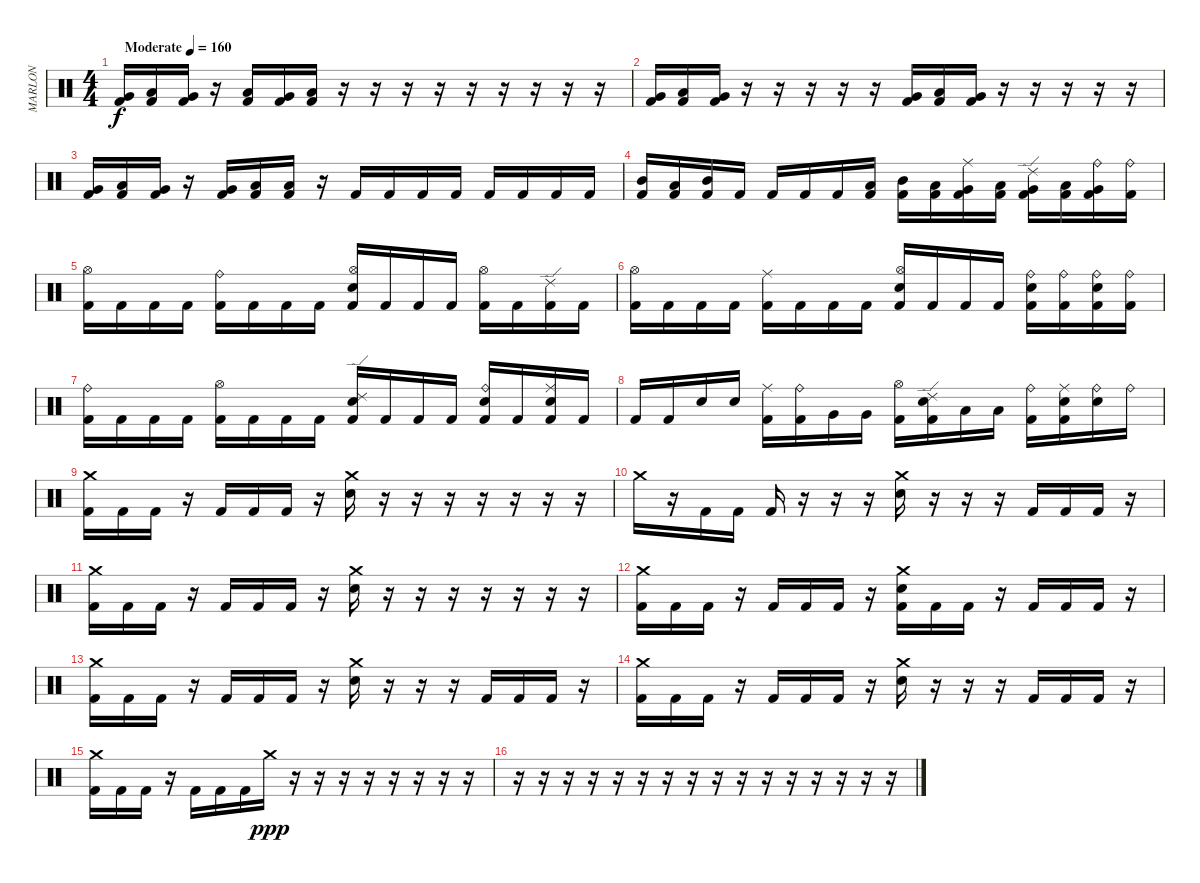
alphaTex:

\track ("MARLON" "MARLON") {instrument percussion}
\staff {score}
\articulation defaults
\ts (4 4)
\tempo (160 "Moderate")
\clef neutral
\ks c
("Very Low Tom (hit)" "Kick (hit) 2").16{dy f} ("Low Tom (hit)" "Kick (hit) 2").16 ("Very Low Tom (hit)" "Kick (hit) 2").16 r.16 ("Low Floor Tom (hit)" "Kick (hit) 2").16 ("Very Low Tom (hit)" "Kick (hit) 2").16 ("Low Floor Tom (hit)" "Kick (hit) 2").16 r.16 r.16 r.16 r.16 r.16 r.16 r.16 r.16 r.16 |
("Very Low Tom (hit)" "Kick (hit) 2").16 ("Low Tom (hit)" "Kick (hit) 2").16 ("Very Low Tom (hit)" "Kick (hit) 2").16 r.16 r.16 r.16 r.16 r.16 ("Very Low Tom (hit)" "Kick (hit) 2").16 ("Low Floor Tom (hit)" "Kick (hit) 2").16 ("Very Low Tom (hit)" "Kick (hit) 2").16 r.16 r.16 r.16 r.16 r.16 |
("Very Low Tom (hit)" "Kick (hit) 2").16 ("Low Floor Tom (hit)" "Kick (hit) 2").16 ("Very Low Tom (hit)" "Kick (hit) 2").16 r.16 ("Very Low Tom (hit)" "Kick (hit) 2").16 ("Low Floor Tom (hit)" "Kick (hit) 2").16 ("Low Floor Tom (hit)" "Kick (hit) 2").16 r.16 "Kick (hit) 2".16 "Kick (hit) 2".16 "Kick (hit) 2".16 "Kick (hit) 2".16 "Kick (hit) 2".16 "Kick (hit) 2".16 "Kick (hit) 2".16 "Kick (hit) 2".16 |
("Mid Tom (hit)" "Kick (hit) 2").16 ("Low Tom (hit)" "Kick (hit) 2").16 ("Mid Tom (hit)" "Kick (hit) 2").16 "Kick (hit) 2".16 "Kick (hit) 2".16 "Kick (hit) 2".16 "Kick (hit) 2".16 ("Low Tom (hit)" "Kick (hit) 2").16 ("Mid Tom (hit)" "Kick (hit) 2").16 ("Low Tom (hit)" "Kick (hit) 2").16 ("Ride (middle)" "Very Low Tom (hit)" "Kick (hit) 2").16 ("Low Tom (hit)" "Kick (hit) 2").16 ("Ride (edge) 2" "Very Low Tom (hit)" "Kick (hit) 2").16 ("Low Floor Tom (hit)" "Kick (hit) 2").16 ("Ride (bell)" "Very Low Tom (hit)" "Kick (hit) 2").16 ("Ride (bell)" "Kick (hit) 2").16 |
("Hi-Hat (open)" "Kick (hit) 2").16 "Kick (hit) 2".16 "Kick (hit) 2".16 "Kick (hit) 2".16 ("Ride (bell)" "Kick (hit) 2").16 "Kick (hit) 2".16 "Kick (hit) 2".16 "Kick (hit) 2".16 ("Hi-Hat (open)" "Electric Snare (hit)" "Kick (hit) 2").16 "Kick (hit) 2".16 "Kick (hit) 2".16 "Kick (hit) 2".16 ("Hi-Hat (open)" "Kick (hit) 2").16 "Kick (hit) 2".16 ("Ride (edge) 2" "Kick (hit) 2").16 "Kick (hit) 2".16 |
("Hi-Hat (open)" "Kick (hit) 2").16 "Kick (hit) 2".16 "Kick (hit) 2".16 "Kick (hit) 2".16 ("Ride (middle)" "Kick (hit) 2").16 "Kick (hit) 2".16 "Kick (hit) 2".16 "Kick (hit) 2".16 ("Hi-Hat (open)" "Electric Snare (hit)" "Kick (hit) 2").16 "Kick (hit) 2".16 "Kick (hit) 2".16 "Kick (hit) 2".16 ("Ride (bell)" "Electric Snare (hit)" "Kick (hit) 2").16 ("Ride (bell)" "Kick (hit) 2").16 ("Ride (bell)" "Electric Snare (hit)" "Kick (hit) 2").16 ("Ride (bell)" "Kick (hit) 2").16 |
("Ride (bell)" "Kick (hit) 2").16 "Kick (hit) 2".16 "Kick (hit) 2".16 "Kick (hit) 2".16 ("Hi-Hat (open)" "Kick (hit) 2").16 "Kick (hit) 2".16 "Kick (hit) 2".16 "Kick (hit) 2".16 ("Ride (edge) 2" "Electric Snare (hit)" "Kick (hit) 2").16 "Kick (hit) 2".16 "Kick (hit) 2".16 "Kick (hit) 2".16 ("Ride (bell)" "Electric Snare (hit)" "Kick (hit) 2").16 "Kick (hit) 2".16 ("Ride (middle)" "Electric Snare (hit)" "Kick (hit) 2").16 "Kick (hit) 2".16 |
"Kick (hit) 2".16 "Kick (hit) 2".16 "Electric Snare (hit)".16 "Electric Snare (hit)".16 ("Ride (middle)" "Kick (hit) 2").16 ("Ride (bell)" "Kick (hit) 2").16 "Very Low Tom (hit)".16 "Very Low Tom (hit)".16 ("Hi-Hat (open)" "Kick (hit) 2").16 ("Ride (edge) 2" "Electric Snare (hit)" "Kick (hit) 2").16 "Low Floor Tom (hit)".16 "Low Floor Tom (hit)".16 ("Ride (bell)" "Kick (hit) 2").16 ("Ride (middle)" "Electric Snare (hit)" "Kick (hit) 2").16 ("Ride (bell)" "Electric Snare (hit)").16 "Ride (bell)".16 |
("Crash medium (hit)" "Kick (hit) 2").16 "Kick (hit) 2".16 "Kick (hit) 2".16 r.16 "Kick (hit) 2".16 "Kick (hit) 2".16 "Kick (hit) 2".16 r.16 ("Crash medium (hit)" "Electric Snare (hit)").16 r.16 r.16 r.16 r.16 r.16 r.16 r.16 |
"Crash medium (hit)".16 r.16 "Kick (hit) 2".16 "Kick (hit) 2".16 "Kick (hit) 2".16 r.16 r.16 r.16 ("Electric Snare (hit)" "Crash medium (hit)").16 r.16 r.16 r.16 "Kick (hit) 2".16 "Kick (hit) 2".16 "Kick (hit) 2".16 r.16 |
("Crash medium (hit)" "Kick (hit) 2").16 "Kick (hit) 2".16 "Kick (hit) 2".16 r.16 "Kick (hit) 2".16 "Kick (hit) 2".16 "Kick (hit) 2".16 r.16 ("Electric Snare (hit)" "Crash medium (hit)").16 r.16 r.16 r.16 r.16 r.16 r.16 r.16 |
("Crash medium (hit)" "Kick (hit) 2").16 "Kick (hit) 2".16 "Kick (hit) 2".16 r.16 "Kick (hit) 2".16 "Kick (hit) 2".16 "Kick (hit) 2".16 r.16 ("Electric Snare (hit)" "Crash medium (hit)" "Kick (hit) 2").16 "Kick (hit) 2".16 "Kick (hit) 2".16 r.16 "Kick (hit) 2".16 "Kick (hit) 2".16 "Kick (hit) 2".16 r.16 |
("Crash medium (hit)" "Kick (hit) 2").16 "Kick (hit) 2".16 "Kick (hit) 2".16 r.16 "Kick (hit) 2".16 "Kick (hit) 2".16 "Kick (hit) 2".16 r.16 ("Crash medium (hit)" "Electric Snare (hit)").16 r.16 r.16 r.16 "Kick (hit) 2".16 "Kick (hit) 2".16 "Kick (hit) 2".16 r.16 |
("Crash medium (hit)" "Kick (hit) 2").16 "Kick (hit) 2".16 "Kick (hit) 2".16 r.16 "Kick (hit) 2".16 "Kick (hit) 2".16 "Kick (hit) 2".16 r.16 ("Electric Snare (hit)" "Crash medium (hit)").16 r.16 r.16 r.16 "Kick (hit) 2".16 "Kick (hit) 2".16 "Kick (hit) 2".16 r.16 |
("Crash medium (hit)" "Kick (hit) 2").16 "Kick (hit) 2".16 "Kick (hit) 2".16 r.16 "Kick (hit) 2".16 "Kick (hit) 2".16 "Kick (hit) 2".16 "Crash medium (hit)".16{dy ppp} r.16 r.16 r.16 r.16 r.16 r.16 r.16 r.16 |
r.16 r.16 r.16 r.16 r.16 r.16 r.16 r.16 r.16 r.16 r.16 r.16 r.16 r.16 r.16 r.16
